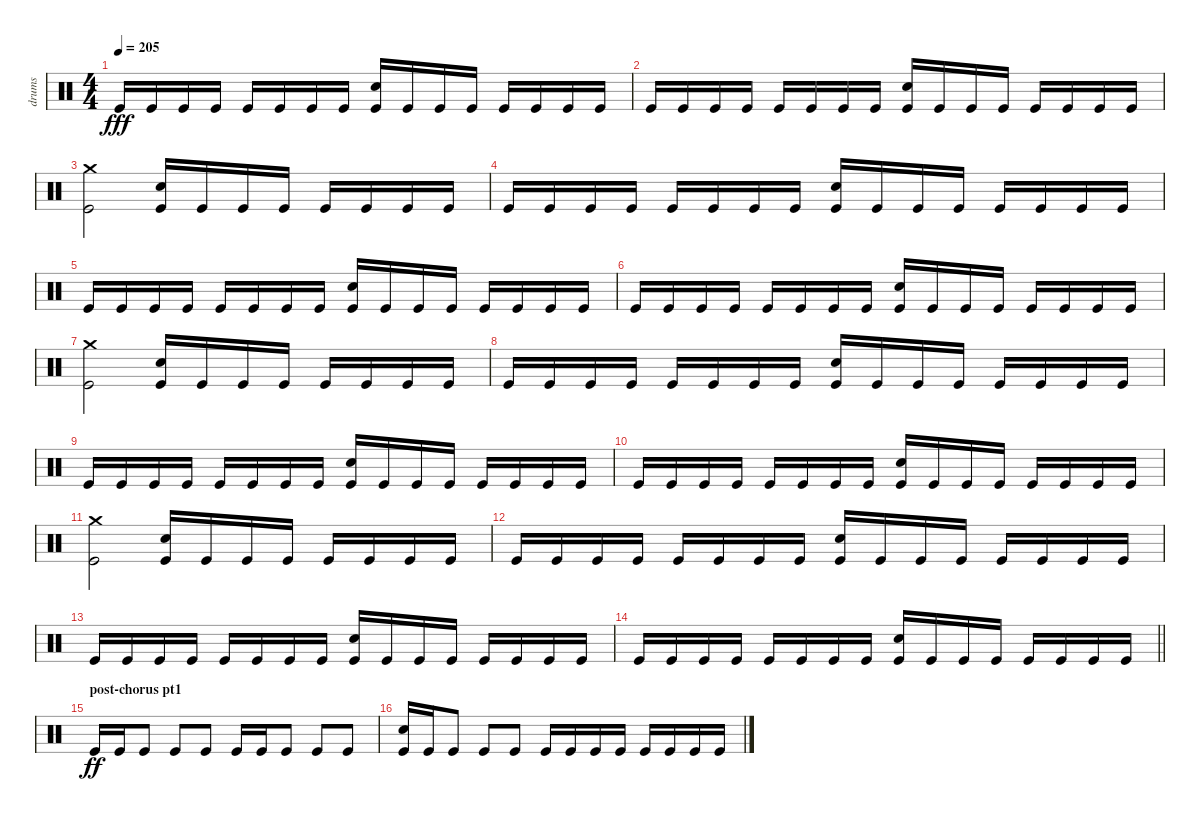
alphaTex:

\track ("drums" "drums") {instrument percussion}
\staff {score}
\articulation defaults
\ts (4 4)
\tempo 205
\clef neutral
\ks c "Kick (hit)".16{dy fff} "Kick (hit)".16 "Kick (hit)".16 "Kick (hit)".16 "Kick (hit)".16 "Kick (hit)".16 "Kick (hit)".16 "Kick (hit)".16
("Electric Snare (hit)" "Kick (hit)").16 "Kick (hit)".16 "Kick (hit)".16 "Kick (hit)".16 "Kick (hit)".16 "Kick (hit)".16 "Kick (hit)".16 "Kick (hit)".16 |
"Kick (hit)".16 "Kick (hit)".16 "Kick (hit)".16 "Kick (hit)".16 "Kick (hit)".16 "Kick (hit)".16 "Kick (hit)".16 "Kick (hit)".16 ("Electric Snare (hit)" "Kick (hit)").16 "Kick (hit)".16 "Kick (hit)".16 "Kick (hit)".16 "Kick (hit)".16 "Kick (hit)".16 "Kick (hit)".16 "Kick (hit)".16 |
("Crash medium (hit)" "Kick (hit)").2 ("Electric Snare (hit)" "Kick (hit)").16 "Kick (hit)".16 "Kick (hit)".16 "Kick (hit)".16 "Kick (hit)".16 "Kick (hit)".16 "Kick (hit)".16 "Kick (hit)".16 |
"Kick (hit)".16 "Kick (hit)".16 "Kick (hit)".16 "Kick (hit)".16 "Kick (hit)".16 "Kick (hit)".16 "Kick (hit)".16 "Kick (hit)".16 ("Electric Snare (hit)" "Kick (hit)").16 "Kick (hit)".16 "Kick (hit)".16 "Kick (hit)".16 "Kick (hit)".16 "Kick (hit)".16 "Kick (hit)".16 "Kick (hit)".16 |
"Kick (hit)".16 "Kick (hit)".16 "Kick (hit)".16 "Kick (hit)".16 "Kick (hit)".16 "Kick (hit)".16 "Kick (hit)".16 "Kick (hit)".16 ("Electric Snare (hit)" "Kick (hit)").16 "Kick (hit)".16 "Kick (hit)".16 "Kick (hit)".16 "Kick (hit)".16 "Kick (hit)".16 "Kick (hit)".16 "Kick (hit)".16 |
"Kick (hit)".16 "Kick (hit)".16 "Kick (hit)".16 "Kick (hit)".16 "Kick (hit)".16 "Kick (hit)".16 "Kick (hit)".16 "Kick (hit)".16 ("Electric Snare (hit)" "Kick (hit)").16 "Kick (hit)".16 "Kick (hit)".16 "Kick (hit)".16 "Kick (hit)".16 "Kick (hit)".16 "Kick (hit)".16 "Kick (hit)".16 |
("Crash medium (hit)" "Kick (hit)").2 ("Electric Snare (hit)" "Kick (hit)").16 "Kick (hit)".16 "Kick (hit)".16 "Kick (hit)".16 "Kick (hit)".16 "Kick (hit)".16 "Kick (hit)".16 "Kick (hit)".16 |
"Kick (hit)".16 "Kick (hit)".16 "Kick (hit)".16 "Kick (hit)".16 "Kick (hit)".16 "Kick (hit)".16 "Kick (hit)".16 "Kick (hit)".16 ("Electric Snare (hit)" "Kick (hit)").16 "Kick (hit)".16 "Kick (hit)".16 "Kick (hit)".16 "Kick (hit)".16 "Kick (hit)".16 "Kick (hit)".16 "Kick (hit)".16 |
"Kick (hit)".16 "Kick (hit)".16 "Kick (hit)".16 "Kick (hit)".16 "Kick (hit)".16 "Kick (hit)".16 "Kick (hit)".16 "Kick (hit)".16 ("Electric Snare (hit)" "Kick (hit)").16 "Kick (hit)".16 "Kick (hit)".16 "Kick (hit)".16 "Kick (hit)".16 "Kick (hit)".16 "Kick (hit)".16 "Kick (hit)".16 |
"Kick (hit)".16 "Kick (hit)".16 "Kick (hit)".16 "Kick (hit)".16 "Kick (hit)".16 "Kick (hit)".16 "Kick (hit)".16 "Kick (hit)".16 ("Electric Snare (hit)" "Kick (hit)").16 "Kick (hit)".16 "Kick (hit)".16 "Kick (hit)".16 "Kick (hit)".16 "Kick (hit)".16 "Kick (hit)".16 "Kick (hit)".16 |
("Crash medium (hit)" "Kick (hit)").2 ("Electric Snare (hit)" "Kick (hit)").16 "Kick (hit)".16 "Kick (hit)".16 "Kick (hit)".16 "Kick (hit)".16 "Kick (hit)".16 "Kick (hit)".16 "Kick (hit)".16 |
"Kick (hit)".16 "Kick (hit)".16 "Kick (hit)".16 "Kick (hit)".16 "Kick (hit)".16 "Kick (hit)".16 "Kick (hit)".16 "Kick (hit)".16 ("Electric Snare (hit)" "Kick (hit)").16 "Kick (hit)".16 "Kick (hit)".16 "Kick (hit)".16 "Kick (hit)".16 "Kick (hit)".16 "Kick (hit)".16 "Kick (hit)".16 |
"Kick (hit)".16 "Kick (hit)".16 "Kick (hit)".16 "Kick (hit)".16 "Kick (hit)".16 "Kick (hit)".16 "Kick (hit)".16 "Kick (hit)".16 ("Electric Snare (hit)" "Kick (hit)").16 "Kick (hit)".16 "Kick (hit)".16 "Kick (hit)".16 "Kick (hit)".16 "Kick (hit)".16 "Kick (hit)".16 "Kick (hit)".16 |
\barLineRight lightlight "Kick (hit)".16 "Kick (hit)".16 "Kick (hit)".16 "Kick (hit)".16 "Kick (hit)".16 "Kick (hit)".16 "Kick (hit)".16 "Kick (hit)".16
("Electric Snare (hit)" "Kick (hit)").16 "Kick (hit)".16 "Kick (hit)".16 "Kick (hit)".16 "Kick (hit)".16 "Kick (hit)".16 "Kick (hit)".16 "Kick (hit)".16 |
\section ("" "post-chorus pt1")
"Kick (hit)".16{dy ff} "Kick (hit)".16 "Kick (hit)".8 "Kick (hit)".8 "Kick (hit)".8 "Kick (hit)".16 "Kick (hit)".16 "Kick (hit)".8 "Kick (hit)".8 "Kick (hit)".8 |
("Electric Snare (hit)" "Kick (hit)").16 "Kick (hit)".16 "Kick (hit)".8 "Kick (hit)".8 "Kick (hit)".8 "Kick (hit)".16 "Kick (hit)".16 "Kick (hit)".16 "Kick (hit)".16 "Kick (hit)".16 "Kick (hit)".16 "Kick (hit)".16 "Kick (hit)".16
